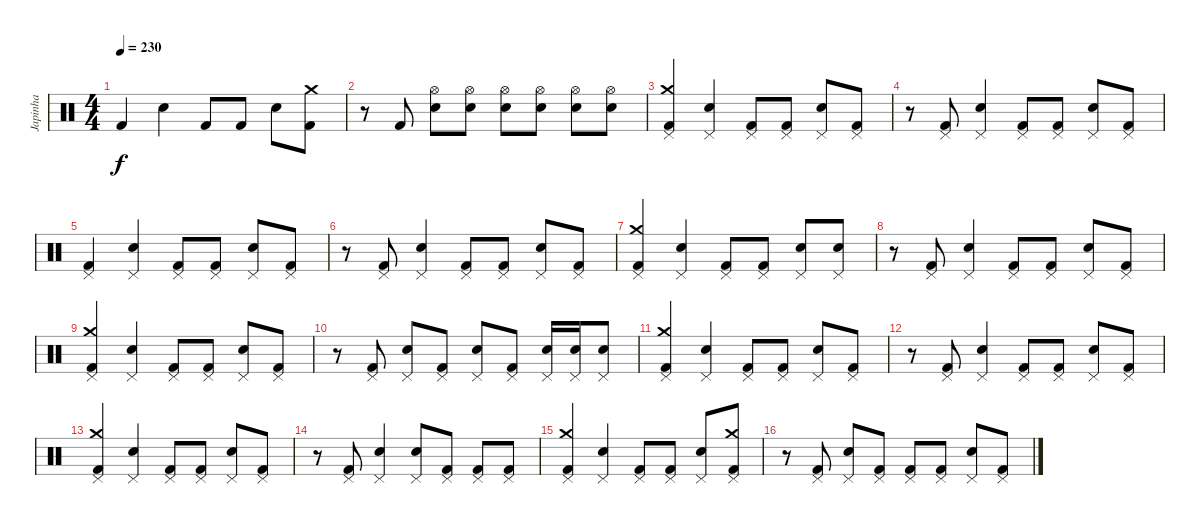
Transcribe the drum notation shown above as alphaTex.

\track ("Japinha" "Japinha") {instrument percussion}
\staff {score}
\articulation defaults
\ts (4 4)
\tempo 230
\clef neutral
\ks c "Kick (hit) 2".4{dy f} "Snare (hit) 2".4 "Kick (hit) 2".8 "Kick (hit) 2".8 "Snare (hit) 2".8
("Crash medium (hit)" "Kick (hit) 2").8 |
r.8 "Kick (hit) 2".8 ("Hi-Hat (open)" "Electric Snare (hit)").8 ("Hi-Hat (open)" "Snare (hit) 2").8 ("Hi-Hat (open)" "Electric Snare (hit)").8 ("Hi-Hat (open)" "Snare (hit) 2").8 ("Hi-Hat (open)" "Electric Snare (hit)").8 ("Hi-Hat (open)" "Snare (hit) 2").8 |
("Crash medium (hit)" "Pedal Hi-Hat (hit)" "Kick (hit) 2").4 ("Pedal Hi-Hat (hit)" "Snare (hit) 2").4 ("Pedal Hi-Hat (hit)" "Kick (hit) 2").8 ("Pedal Hi-Hat (hit)" "Kick (hit) 2").8 ("Pedal Hi-Hat (hit)" "Snare (hit) 2").8 ("Pedal Hi-Hat (hit)" "Kick (hit) 2").8 |
r.8 ("Pedal Hi-Hat (hit)" "Kick (hit) 2").8 ("Pedal Hi-Hat (hit)" "Snare (hit) 2").4 ("Pedal Hi-Hat (hit)" "Kick (hit) 2").8 ("Pedal Hi-Hat (hit)" "Kick (hit) 2").8 ("Pedal Hi-Hat (hit)" "Snare (hit) 2").8 ("Pedal Hi-Hat (hit)" "Kick (hit) 2").8 |
("Pedal Hi-Hat (hit)" "Kick (hit) 2").4 ("Pedal Hi-Hat (hit)" "Snare (hit) 2").4 ("Pedal Hi-Hat (hit)" "Kick (hit) 2").8 ("Pedal Hi-Hat (hit)" "Kick (hit) 2").8 ("Pedal Hi-Hat (hit)" "Snare (hit) 2").8 ("Pedal Hi-Hat (hit)" "Kick (hit) 2").8 |
r.8 ("Pedal Hi-Hat (hit)" "Kick (hit) 2").8 ("Pedal Hi-Hat (hit)" "Snare (hit) 2").4 ("Pedal Hi-Hat (hit)" "Kick (hit) 2").8 ("Pedal Hi-Hat (hit)" "Kick (hit) 2").8 ("Pedal Hi-Hat (hit)" "Snare (hit) 2").8 ("Pedal Hi-Hat (hit)" "Kick (hit) 2").8 |
("Crash medium (hit)" "Pedal Hi-Hat (hit)" "Kick (hit) 2").4 ("Pedal Hi-Hat (hit)" "Snare (hit) 2").4 ("Pedal Hi-Hat (hit)" "Kick (hit) 2").8 ("Pedal Hi-Hat (hit)" "Kick (hit) 2").8 ("Pedal Hi-Hat (hit)" "Snare (hit) 2").8 ("Pedal Hi-Hat (hit)" "Snare (hit) 2").8 |
r.8 ("Pedal Hi-Hat (hit)" "Kick (hit) 2").8 ("Pedal Hi-Hat (hit)" "Snare (hit) 2").4 ("Pedal Hi-Hat (hit)" "Kick (hit) 2").8 ("Pedal Hi-Hat (hit)" "Kick (hit) 2").8 ("Pedal Hi-Hat (hit)" "Snare (hit) 2").8 ("Pedal Hi-Hat (hit)" "Kick (hit) 2").8 |
("Crash medium (hit)" "Pedal Hi-Hat (hit)" "Kick (hit) 2").4 ("Pedal Hi-Hat (hit)" "Snare (hit) 2").4 ("Pedal Hi-Hat (hit)" "Kick (hit) 2").8 ("Pedal Hi-Hat (hit)" "Kick (hit) 2").8 ("Pedal Hi-Hat (hit)" "Snare (hit) 2").8 ("Pedal Hi-Hat (hit)" "Kick (hit) 2").8 |
r.8 ("Pedal Hi-Hat (hit)" "Kick (hit) 2").8 ("Pedal Hi-Hat (hit)" "Snare (hit) 2").8 ("Pedal Hi-Hat (hit)" "Kick (hit) 2").8 ("Pedal Hi-Hat (hit)" "Electric Snare (hit)").8 ("Pedal Hi-Hat (hit)" "Kick (hit) 2").8 ("Pedal Hi-Hat (hit)" "Electric Snare (hit)").16 ("Pedal Hi-Hat (hit)" "Electric Snare (hit)").16 ("Pedal Hi-Hat (hit)" "Electric Snare (hit)").8 |
("Crash medium (hit)" "Pedal Hi-Hat (hit)" "Kick (hit) 2").4 ("Pedal Hi-Hat (hit)" "Snare (hit) 2").4 ("Pedal Hi-Hat (hit)" "Kick (hit) 2").8 ("Pedal Hi-Hat (hit)" "Kick (hit) 2").8 ("Pedal Hi-Hat (hit)" "Snare (hit) 2").8 ("Pedal Hi-Hat (hit)" "Kick (hit) 2").8 |
r.8 ("Pedal Hi-Hat (hit)" "Kick (hit) 2").8 ("Pedal Hi-Hat (hit)" "Snare (hit) 2").4 ("Pedal Hi-Hat (hit)" "Kick (hit) 2").8 ("Pedal Hi-Hat (hit)" "Kick (hit) 2").8 ("Pedal Hi-Hat (hit)" "Snare (hit) 2").8 ("Pedal Hi-Hat (hit)" "Kick (hit) 2").8 |
("Crash medium (hit)" "Pedal Hi-Hat (hit)" "Kick (hit) 2").4 ("Pedal Hi-Hat (hit)" "Snare (hit) 2").4 ("Pedal Hi-Hat (hit)" "Kick (hit) 2").8 ("Pedal Hi-Hat (hit)" "Kick (hit) 2").8 ("Pedal Hi-Hat (hit)" "Snare (hit) 2").8 ("Pedal Hi-Hat (hit)" "Kick (hit) 2").8 |
r.8 ("Pedal Hi-Hat (hit)" "Kick (hit) 2").8 ("Pedal Hi-Hat (hit)" "Snare (hit) 2").4 ("Pedal Hi-Hat (hit)" "Snare (hit) 2").8 ("Pedal Hi-Hat (hit)" "Kick (hit) 2").8 ("Pedal Hi-Hat (hit)" "Kick (hit) 2").8 ("Pedal Hi-Hat (hit)" "Kick (hit) 2").8 |
("Crash medium (hit)" "Pedal Hi-Hat (hit)" "Kick (hit) 2").4 ("Pedal Hi-Hat (hit)" "Snare (hit) 2").4 ("Pedal Hi-Hat (hit)" "Kick (hit) 2").8 ("Pedal Hi-Hat (hit)" "Kick (hit) 2").8 ("Pedal Hi-Hat (hit)" "Snare (hit) 2").8 ("Crash medium (hit)" "Pedal Hi-Hat (hit)" "Kick (hit) 2").8 |
r.8 ("Pedal Hi-Hat (hit)" "Kick (hit) 2").8 ("Pedal Hi-Hat (hit)" "Snare (hit) 2").8 ("Pedal Hi-Hat (hit)" "Kick (hit) 2").8 ("Pedal Hi-Hat (hit)" "Kick (hit) 2").8 ("Pedal Hi-Hat (hit)" "Kick (hit) 2").8 ("Pedal Hi-Hat (hit)" "Snare (hit) 2").8 ("Pedal Hi-Hat (hit)" "Kick (hit) 2").8
